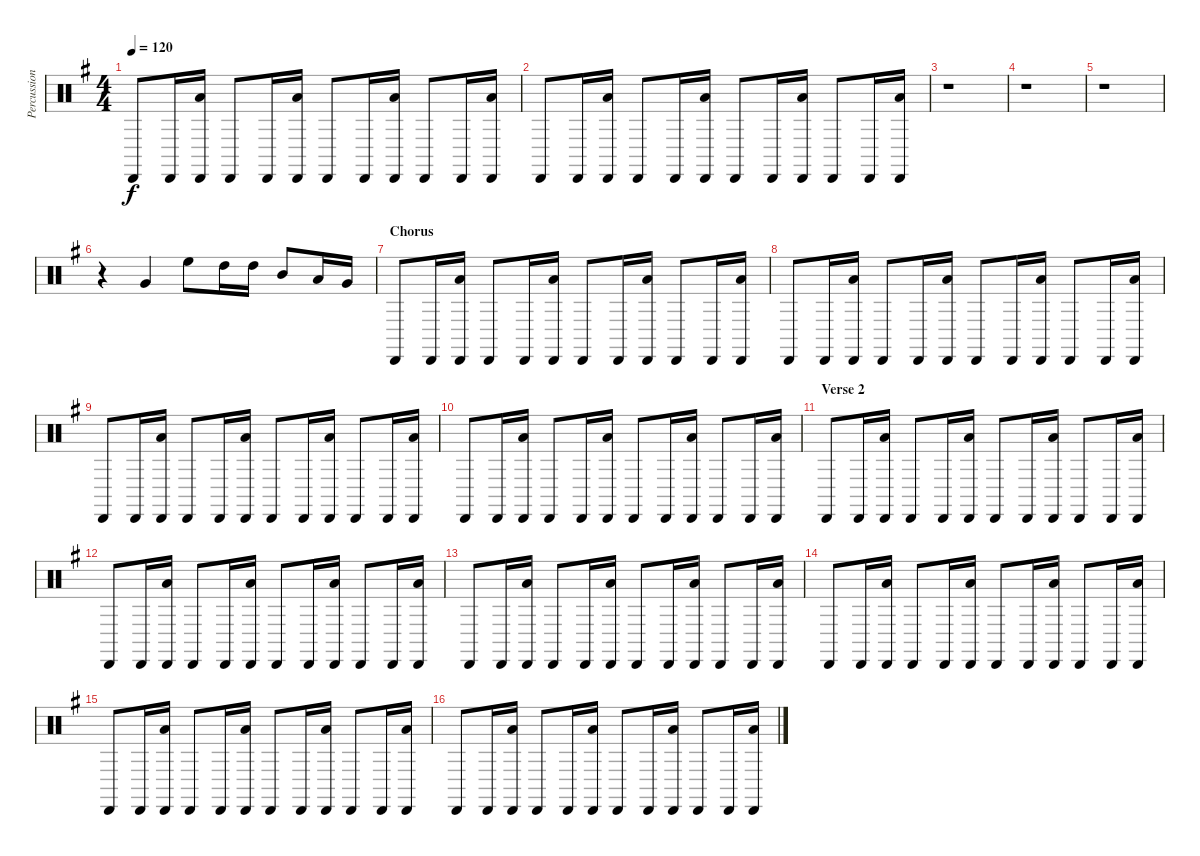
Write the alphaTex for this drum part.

\track ("Percussion" "Percussion") {instrument percussion}
\staff {score}
\articulation defaults
\ts (4 4)
\tempo 120
\clef neutral
\ks g "Cabasa (hit)".8{dy f} "Cabasa (hit)".16
("Cabasa (hit)" "Low Floor Tom (hit)").16 "Cabasa (hit)".8 "Cabasa (hit)".16 ("Cabasa (hit)" "Low Floor Tom (hit)").16 "Cabasa (hit)".8 "Cabasa (hit)".16 ("Cabasa (hit)" "Low Floor Tom (hit)").16 "Cabasa (hit)".8 "Cabasa (hit)".16 ("Cabasa (hit)" "Low Floor Tom (hit)").16 |
"Cabasa (hit)".8 "Cabasa (hit)".16 ("Cabasa (hit)" "Low Floor Tom (hit)").16 "Cabasa (hit)".8 "Cabasa (hit)".16 ("Cabasa (hit)" "Low Floor Tom (hit)").16 "Cabasa (hit)".8 "Cabasa (hit)".16 ("Cabasa (hit)" "Low Floor Tom (hit)").16 "Cabasa (hit)".8 "Cabasa (hit)".16 ("Cabasa (hit)" "Low Floor Tom (hit)").16 |
r.1 |
r.1 |
r.1 |
r.4 "Very Low Tom (hit)".4 "High Floor Tom (hit)".8 "High Tom (hit)".16 "High Tom (hit)".16 "Mid Tom (hit)".8 "Low Tom (hit)".16 "Very Low Tom (hit)".16 |
\section ("" "Chorus")
"Cabasa (hit)".8 "Cabasa (hit)".16 ("Cabasa (hit)" "Low Floor Tom (hit)").16 "Cabasa (hit)".8 "Cabasa (hit)".16 ("Cabasa (hit)" "Low Floor Tom (hit)").16 "Cabasa (hit)".8 "Cabasa (hit)".16 ("Cabasa (hit)" "Low Floor Tom (hit)").16 "Cabasa (hit)".8 "Cabasa (hit)".16 ("Cabasa (hit)" "Low Floor Tom (hit)").16 |
"Cabasa (hit)".8 "Cabasa (hit)".16 ("Cabasa (hit)" "Low Floor Tom (hit)").16 "Cabasa (hit)".8 "Cabasa (hit)".16 ("Cabasa (hit)" "Low Floor Tom (hit)").16 "Cabasa (hit)".8 "Cabasa (hit)".16 ("Cabasa (hit)" "Low Floor Tom (hit)").16 "Cabasa (hit)".8 "Cabasa (hit)".16 ("Cabasa (hit)" "Low Floor Tom (hit)").16 |
"Cabasa (hit)".8 "Cabasa (hit)".16 ("Cabasa (hit)" "Low Floor Tom (hit)").16 "Cabasa (hit)".8 "Cabasa (hit)".16 ("Cabasa (hit)" "Low Floor Tom (hit)").16 "Cabasa (hit)".8 "Cabasa (hit)".16 ("Cabasa (hit)" "Low Floor Tom (hit)").16 "Cabasa (hit)".8 "Cabasa (hit)".16 ("Cabasa (hit)" "Low Floor Tom (hit)").16 |
"Cabasa (hit)".8 "Cabasa (hit)".16 ("Cabasa (hit)" "Low Floor Tom (hit)").16 "Cabasa (hit)".8 "Cabasa (hit)".16 ("Cabasa (hit)" "Low Floor Tom (hit)").16 "Cabasa (hit)".8 "Cabasa (hit)".16 ("Cabasa (hit)" "Low Floor Tom (hit)").16 "Cabasa (hit)".8 "Cabasa (hit)".16 ("Cabasa (hit)" "Low Floor Tom (hit)").16 |
\section ("" "Verse 2")
"Cabasa (hit)".8 "Cabasa (hit)".16 ("Cabasa (hit)" "Low Floor Tom (hit)").16 "Cabasa (hit)".8 "Cabasa (hit)".16 ("Cabasa (hit)" "Low Floor Tom (hit)").16 "Cabasa (hit)".8 "Cabasa (hit)".16 ("Cabasa (hit)" "Low Floor Tom (hit)").16 "Cabasa (hit)".8 "Cabasa (hit)".16 ("Cabasa (hit)" "Low Floor Tom (hit)").16 |
"Cabasa (hit)".8 "Cabasa (hit)".16 ("Cabasa (hit)" "Low Floor Tom (hit)").16 "Cabasa (hit)".8 "Cabasa (hit)".16 ("Cabasa (hit)" "Low Floor Tom (hit)").16 "Cabasa (hit)".8 "Cabasa (hit)".16 ("Cabasa (hit)" "Low Floor Tom (hit)").16 "Cabasa (hit)".8 "Cabasa (hit)".16 ("Cabasa (hit)" "Low Floor Tom (hit)").16 |
"Cabasa (hit)".8 "Cabasa (hit)".16 ("Cabasa (hit)" "Low Floor Tom (hit)").16 "Cabasa (hit)".8 "Cabasa (hit)".16 ("Cabasa (hit)" "Low Floor Tom (hit)").16 "Cabasa (hit)".8 "Cabasa (hit)".16 ("Cabasa (hit)" "Low Floor Tom (hit)").16 "Cabasa (hit)".8 "Cabasa (hit)".16 ("Cabasa (hit)" "Low Floor Tom (hit)").16 |
"Cabasa (hit)".8 "Cabasa (hit)".16 ("Cabasa (hit)" "Low Floor Tom (hit)").16 "Cabasa (hit)".8 "Cabasa (hit)".16 ("Cabasa (hit)" "Low Floor Tom (hit)").16 "Cabasa (hit)".8 "Cabasa (hit)".16 ("Cabasa (hit)" "Low Floor Tom (hit)").16 "Cabasa (hit)".8 "Cabasa (hit)".16 ("Cabasa (hit)" "Low Floor Tom (hit)").16 |
"Cabasa (hit)".8 "Cabasa (hit)".16 ("Cabasa (hit)" "Low Floor Tom (hit)").16 "Cabasa (hit)".8 "Cabasa (hit)".16 ("Cabasa (hit)" "Low Floor Tom (hit)").16 "Cabasa (hit)".8 "Cabasa (hit)".16 ("Cabasa (hit)" "Low Floor Tom (hit)").16 "Cabasa (hit)".8 "Cabasa (hit)".16 ("Cabasa (hit)" "Low Floor Tom (hit)").16 |
"Cabasa (hit)".8 "Cabasa (hit)".16 ("Cabasa (hit)" "Low Floor Tom (hit)").16 "Cabasa (hit)".8 "Cabasa (hit)".16 ("Cabasa (hit)" "Low Floor Tom (hit)").16 "Cabasa (hit)".8 "Cabasa (hit)".16 ("Cabasa (hit)" "Low Floor Tom (hit)").16 "Cabasa (hit)".8 "Cabasa (hit)".16 ("Cabasa (hit)" "Low Floor Tom (hit)").16
